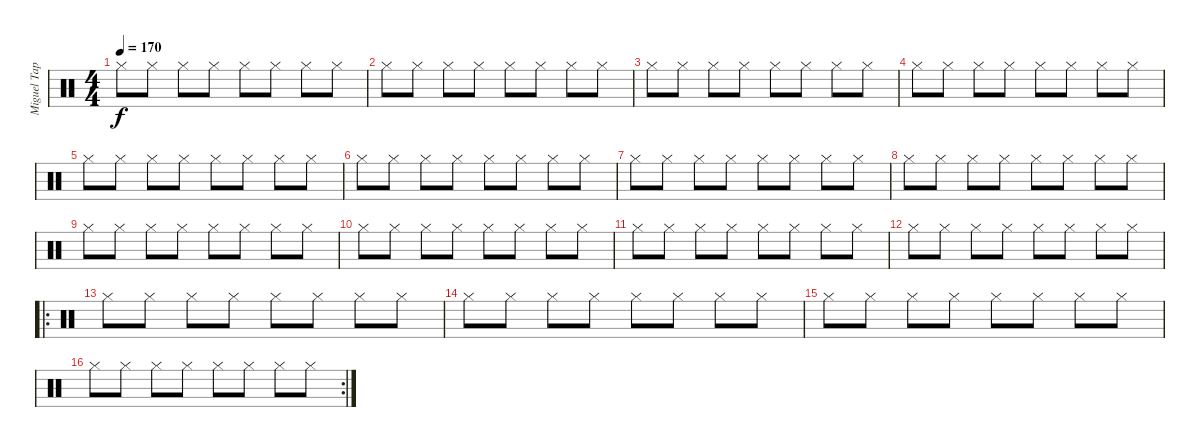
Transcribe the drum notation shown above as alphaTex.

\track ("Miguel Tapia" "Miguel Tap") {instrument percussion}
\staff {score}
\articulation defaults
\ts (4 4)
\tempo 170
\clef neutral
\ks c "Hi-Hat (closed)".8{dy f} "Hi-Hat (closed)".8 "Hi-Hat (closed)".8 "Hi-Hat (closed)".8 "Hi-Hat (closed)".8 "Hi-Hat (closed)".8 "Hi-Hat (closed)".8 "Hi-Hat (closed)".8
|
"Hi-Hat (closed)".8 "Hi-Hat (closed)".8 "Hi-Hat (closed)".8 "Hi-Hat (closed)".8 "Hi-Hat (closed)".8 "Hi-Hat (closed)".8 "Hi-Hat (closed)".8 "Hi-Hat (closed)".8 |
"Hi-Hat (closed)".8 "Hi-Hat (closed)".8 "Hi-Hat (closed)".8 "Hi-Hat (closed)".8 "Hi-Hat (closed)".8 "Hi-Hat (closed)".8 "Hi-Hat (closed)".8 "Hi-Hat (closed)".8 |
"Hi-Hat (closed)".8 "Hi-Hat (closed)".8 "Hi-Hat (closed)".8 "Hi-Hat (closed)".8 "Hi-Hat (closed)".8 "Hi-Hat (closed)".8 "Hi-Hat (closed)".8 "Hi-Hat (closed)".8 |
"Hi-Hat (closed)".8 "Hi-Hat (closed)".8 "Hi-Hat (closed)".8 "Hi-Hat (closed)".8 "Hi-Hat (closed)".8 "Hi-Hat (closed)".8 "Hi-Hat (closed)".8 "Hi-Hat (closed)".8 |
"Hi-Hat (closed)".8 "Hi-Hat (closed)".8 "Hi-Hat (closed)".8 "Hi-Hat (closed)".8 "Hi-Hat (closed)".8 "Hi-Hat (closed)".8 "Hi-Hat (closed)".8 "Hi-Hat (closed)".8 |
"Hi-Hat (closed)".8 "Hi-Hat (closed)".8 "Hi-Hat (closed)".8 "Hi-Hat (closed)".8 "Hi-Hat (closed)".8 "Hi-Hat (closed)".8 "Hi-Hat (closed)".8 "Hi-Hat (closed)".8 |
"Hi-Hat (closed)".8 "Hi-Hat (closed)".8 "Hi-Hat (closed)".8 "Hi-Hat (closed)".8 "Hi-Hat (closed)".8 "Hi-Hat (closed)".8 "Hi-Hat (closed)".8 "Hi-Hat (closed)".8 |
"Hi-Hat (closed)".8 "Hi-Hat (closed)".8 "Hi-Hat (closed)".8 "Hi-Hat (closed)".8 "Hi-Hat (closed)".8 "Hi-Hat (closed)".8 "Hi-Hat (closed)".8 "Hi-Hat (closed)".8 |
"Hi-Hat (closed)".8 "Hi-Hat (closed)".8 "Hi-Hat (closed)".8 "Hi-Hat (closed)".8 "Hi-Hat (closed)".8 "Hi-Hat (closed)".8 "Hi-Hat (closed)".8 "Hi-Hat (closed)".8 |
"Hi-Hat (closed)".8 "Hi-Hat (closed)".8 "Hi-Hat (closed)".8 "Hi-Hat (closed)".8 "Hi-Hat (closed)".8 "Hi-Hat (closed)".8 "Hi-Hat (closed)".8 "Hi-Hat (closed)".8 |
"Hi-Hat (closed)".8 "Hi-Hat (closed)".8 "Hi-Hat (closed)".8 "Hi-Hat (closed)".8 "Hi-Hat (closed)".8 "Hi-Hat (closed)".8 "Hi-Hat (closed)".8 "Hi-Hat (closed)".8 |
\ro "Hi-Hat (closed)".8 "Hi-Hat (closed)".8 "Hi-Hat (closed)".8 "Hi-Hat (closed)".8 "Hi-Hat (closed)".8 "Hi-Hat (closed)".8 "Hi-Hat (closed)".8 "Hi-Hat (closed)".8
|
"Hi-Hat (closed)".8 "Hi-Hat (closed)".8 "Hi-Hat (closed)".8 "Hi-Hat (closed)".8 "Hi-Hat (closed)".8 "Hi-Hat (closed)".8 "Hi-Hat (closed)".8 "Hi-Hat (closed)".8 |
"Hi-Hat (closed)".8 "Hi-Hat (closed)".8 "Hi-Hat (closed)".8 "Hi-Hat (closed)".8 "Hi-Hat (closed)".8 "Hi-Hat (closed)".8 "Hi-Hat (closed)".8 "Hi-Hat (closed)".8 |
\rc 2 "Hi-Hat (closed)".8 "Hi-Hat (closed)".8 "Hi-Hat (closed)".8 "Hi-Hat (closed)".8 "Hi-Hat (closed)".8 "Hi-Hat (closed)".8 "Hi-Hat (closed)".8 "Hi-Hat (closed)".8
